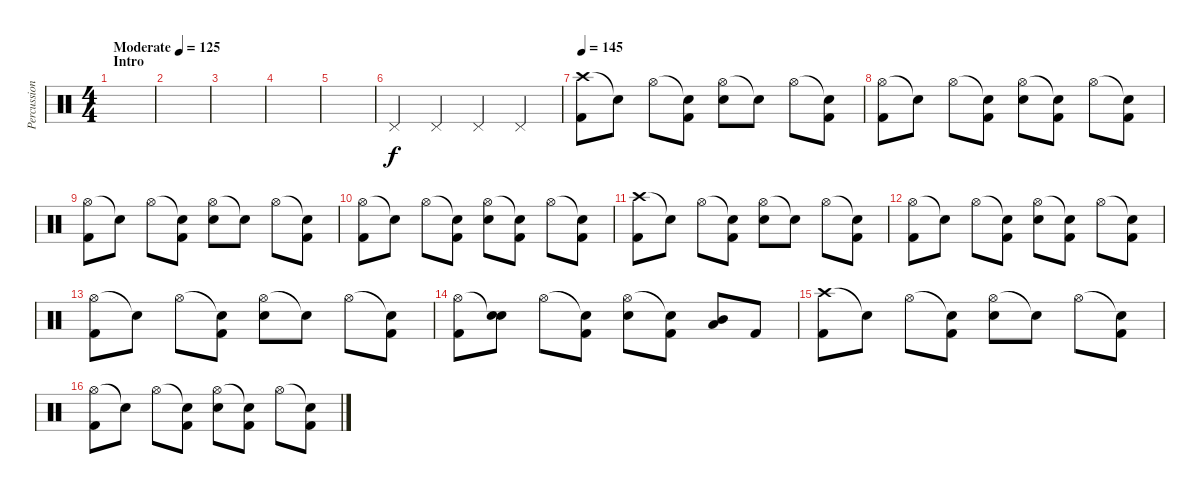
\track ("Percussion" "Percussion") {instrument percussion}
\staff {score}
\articulation defaults
\ts (4 4)
\section ("" "Intro")
\tempo (125 "Moderate")
\clef neutral
\ks c
|
|
|
|
|
"Pedal Hi-Hat (hit)".4 "Pedal Hi-Hat (hit)".4 "Pedal Hi-Hat (hit)".4 "Pedal Hi-Hat (hit)".4 |
\tempo 145
("Crash high (hit)" "Kick (hit) 2").8{dy f} "Snare (hit)"{t}.8 "Hi-Hat (open)".8 ("Snare (hit)"{t} "Kick (hit) 2").8 ("Hi-Hat (open)" "Electric Snare (hit)").8 "Snare (hit)"{t}.8 "Hi-Hat (open)".8 ("Snare (hit)"{t} "Kick (hit) 2").8 |
("Hi-Hat (open)" "Kick (hit) 2").8 "Snare (hit)"{t}.8 "Hi-Hat (open)".8 ("Snare (hit)"{t} "Kick (hit) 2").8 ("Hi-Hat (open)" "Electric Snare (hit)").8 ("Snare (hit)"{t} "Kick (hit) 2").8 "Hi-Hat (open)".8 ("Snare (hit)"{t} "Kick (hit) 2").8 |
("Hi-Hat (open)" "Kick (hit) 2").8 "Snare (hit)"{t}.8 "Hi-Hat (open)".8 ("Snare (hit)"{t} "Kick (hit) 2").8 ("Hi-Hat (open)" "Electric Snare (hit)").8 "Snare (hit)"{t}.8 "Hi-Hat (open)".8 ("Snare (hit)"{t} "Kick (hit) 2").8 |
("Hi-Hat (open)" "Kick (hit) 2").8 "Snare (hit)"{t}.8 "Hi-Hat (open)".8 ("Snare (hit)"{t} "Kick (hit) 2").8 ("Hi-Hat (open)" "Electric Snare (hit)").8 ("Snare (hit)"{t} "Kick (hit) 2").8 "Hi-Hat (open)".8 ("Snare (hit)"{t} "Kick (hit) 2").8 |
("Crash high (hit)" "Kick (hit) 2").8 "Snare (hit)"{t}.8 "Hi-Hat (open)".8 ("Snare (hit)"{t} "Kick (hit) 2").8 ("Hi-Hat (open)" "Electric Snare (hit)").8 "Snare (hit)"{t}.8 "Hi-Hat (open)".8 ("Snare (hit)"{t} "Kick (hit) 2").8 |
("Hi-Hat (open)" "Kick (hit) 2").8 "Snare (hit)"{t}.8 "Hi-Hat (open)".8 ("Snare (hit)"{t} "Kick (hit) 2").8 ("Hi-Hat (open)" "Electric Snare (hit)").8 ("Snare (hit)"{t} "Kick (hit) 2").8 "Hi-Hat (open)".8 ("Snare (hit)"{t} "Kick (hit) 2").8 |
("Hi-Hat (open)" "Kick (hit) 2").8 "Snare (hit)"{t}.8 "Hi-Hat (open)".8 ("Snare (hit)"{t} "Kick (hit) 2").8 ("Hi-Hat (open)" "Electric Snare (hit)").8 "Snare (hit)"{t}.8 "Hi-Hat (open)".8 ("Snare (hit)"{t} "Kick (hit) 2").8 |
("Hi-Hat (open)" "Kick (hit) 2").8 ("Snare (hit)"{t} "Electric Snare (hit)").8 "Hi-Hat (open)".8 ("Snare (hit)"{t} "Kick (hit) 2").8 ("Hi-Hat (open)" "Electric Snare (hit)").8 ("Snare (hit)"{t} "Kick (hit) 2").8 ("Mid Tom (hit)" "Low Tom (hit)").8 "Kick (hit) 2".8 |
("Crash high (hit)" "Kick (hit) 2").8 "Snare (hit)"{t}.8 "Hi-Hat (open)".8 ("Snare (hit)"{t} "Kick (hit) 2").8 ("Hi-Hat (open)" "Electric Snare (hit)").8 "Snare (hit)"{t}.8 "Hi-Hat (open)".8 ("Snare (hit)"{t} "Kick (hit) 2").8 |
("Hi-Hat (open)" "Kick (hit) 2").8 "Snare (hit)"{t}.8 "Hi-Hat (open)".8 ("Snare (hit)"{t} "Kick (hit) 2").8 ("Hi-Hat (open)" "Electric Snare (hit)").8 ("Snare (hit)"{t} "Kick (hit) 2").8 "Hi-Hat (open)".8 ("Snare (hit)"{t} "Kick (hit) 2").8
